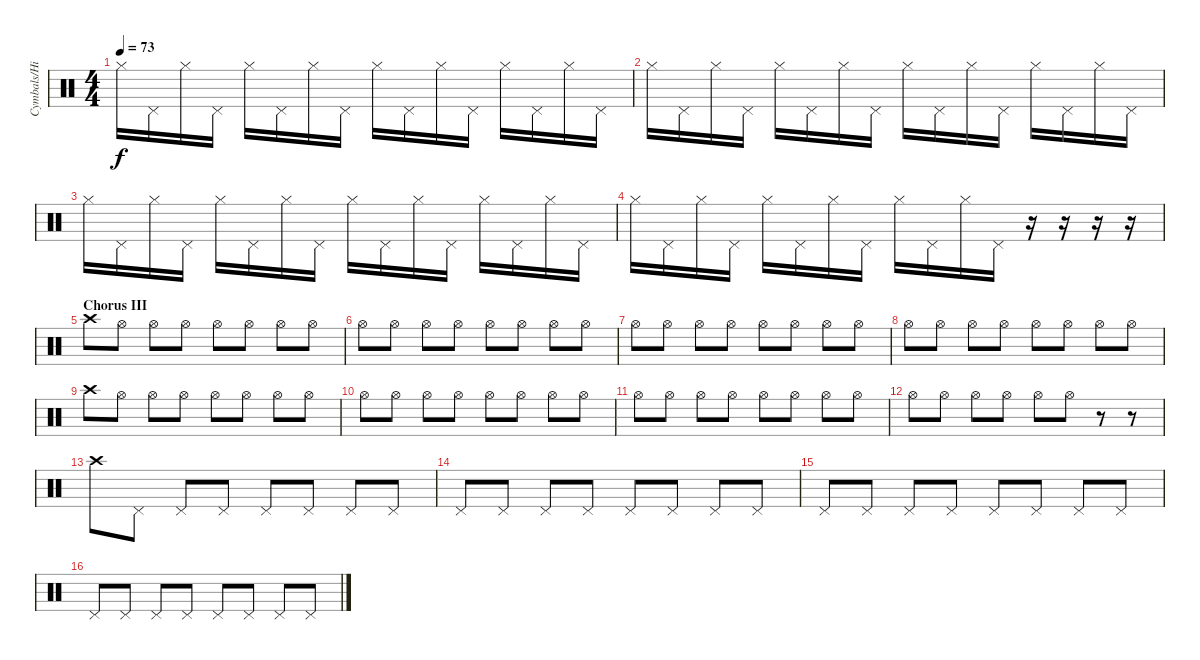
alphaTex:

\track ("Cymbals/Hi-hat" "Cymbals/Hi") {instrument percussion}
\staff {score}
\articulation defaults
\ts (4 4)
\tempo 73
\clef neutral
\ks c "Hi-Hat (closed)".16{dy f} "Pedal Hi-Hat (hit)".16 "Hi-Hat (closed)".16 "Pedal Hi-Hat (hit)".16 "Hi-Hat (closed)".16 "Pedal Hi-Hat (hit)".16 "Hi-Hat (closed)".16 "Pedal Hi-Hat (hit)".16 "Hi-Hat (closed)".16 "Pedal Hi-Hat (hit)".16 "Hi-Hat (closed)".16 "Pedal Hi-Hat (hit)".16 "Hi-Hat (closed)".16 "Pedal Hi-Hat (hit)".16 "Hi-Hat (closed)".16 "Pedal Hi-Hat (hit)".16
|
"Hi-Hat (closed)".16 "Pedal Hi-Hat (hit)".16 "Hi-Hat (closed)".16 "Pedal Hi-Hat (hit)".16 "Hi-Hat (closed)".16 "Pedal Hi-Hat (hit)".16 "Hi-Hat (closed)".16 "Pedal Hi-Hat (hit)".16 "Hi-Hat (closed)".16 "Pedal Hi-Hat (hit)".16 "Hi-Hat (closed)".16 "Pedal Hi-Hat (hit)".16 "Hi-Hat (closed)".16 "Pedal Hi-Hat (hit)".16 "Hi-Hat (closed)".16 "Pedal Hi-Hat (hit)".16 |
"Hi-Hat (closed)".16 "Pedal Hi-Hat (hit)".16 "Hi-Hat (closed)".16 "Pedal Hi-Hat (hit)".16 "Hi-Hat (closed)".16 "Pedal Hi-Hat (hit)".16 "Hi-Hat (closed)".16 "Pedal Hi-Hat (hit)".16 "Hi-Hat (closed)".16 "Pedal Hi-Hat (hit)".16 "Hi-Hat (closed)".16 "Pedal Hi-Hat (hit)".16 "Hi-Hat (closed)".16 "Pedal Hi-Hat (hit)".16 "Hi-Hat (closed)".16 "Pedal Hi-Hat (hit)".16 |
"Hi-Hat (closed)".16 "Pedal Hi-Hat (hit)".16 "Hi-Hat (closed)".16 "Pedal Hi-Hat (hit)".16 "Hi-Hat (closed)".16 "Pedal Hi-Hat (hit)".16 "Hi-Hat (closed)".16 "Pedal Hi-Hat (hit)".16 "Hi-Hat (closed)".16 "Pedal Hi-Hat (hit)".16 "Hi-Hat (closed)".16 "Pedal Hi-Hat (hit)".16 r.16 r.16 r.16 r.16 |
\section ("" "Chorus III")
"Crash high (hit)".8 "Hi-Hat (open)".8 "Hi-Hat (open)".8 "Hi-Hat (open)".8 "Hi-Hat (open)".8 "Hi-Hat (open)".8 "Hi-Hat (open)".8 "Hi-Hat (open)".8 |
"Hi-Hat (open)".8 "Hi-Hat (open)".8 "Hi-Hat (open)".8 "Hi-Hat (open)".8 "Hi-Hat (open)".8 "Hi-Hat (open)".8 "Hi-Hat (open)".8 "Hi-Hat (open)".8 |
"Hi-Hat (open)".8 "Hi-Hat (open)".8 "Hi-Hat (open)".8 "Hi-Hat (open)".8 "Hi-Hat (open)".8 "Hi-Hat (open)".8 "Hi-Hat (open)".8 "Hi-Hat (open)".8 |
"Hi-Hat (open)".8 "Hi-Hat (open)".8 "Hi-Hat (open)".8 "Hi-Hat (open)".8 "Hi-Hat (open)".8 "Hi-Hat (open)".8 "Hi-Hat (open)".8 "Hi-Hat (open)".8 |
"Crash high (hit)".8 "Hi-Hat (open)".8 "Hi-Hat (open)".8 "Hi-Hat (open)".8 "Hi-Hat (open)".8 "Hi-Hat (open)".8 "Hi-Hat (open)".8 "Hi-Hat (open)".8 |
"Hi-Hat (open)".8 "Hi-Hat (open)".8 "Hi-Hat (open)".8 "Hi-Hat (open)".8 "Hi-Hat (open)".8 "Hi-Hat (open)".8 "Hi-Hat (open)".8 "Hi-Hat (open)".8 |
"Hi-Hat (open)".8 "Hi-Hat (open)".8 "Hi-Hat (open)".8 "Hi-Hat (open)".8 "Hi-Hat (open)".8 "Hi-Hat (open)".8 "Hi-Hat (open)".8 "Hi-Hat (open)".8 |
"Hi-Hat (open)".8 "Hi-Hat (open)".8 "Hi-Hat (open)".8 "Hi-Hat (open)".8 "Hi-Hat (open)".8 "Hi-Hat (open)".8 r.8 r.8 |
"Crash high (hit)".8 "Pedal Hi-Hat (hit)".8 "Pedal Hi-Hat (hit)".8 "Pedal Hi-Hat (hit)".8 "Pedal Hi-Hat (hit)".8 "Pedal Hi-Hat (hit)".8 "Pedal Hi-Hat (hit)".8 "Pedal Hi-Hat (hit)".8 |
"Pedal Hi-Hat (hit)".8 "Pedal Hi-Hat (hit)".8 "Pedal Hi-Hat (hit)".8 "Pedal Hi-Hat (hit)".8 "Pedal Hi-Hat (hit)".8 "Pedal Hi-Hat (hit)".8 "Pedal Hi-Hat (hit)".8 "Pedal Hi-Hat (hit)".8 |
"Pedal Hi-Hat (hit)".8 "Pedal Hi-Hat (hit)".8 "Pedal Hi-Hat (hit)".8 "Pedal Hi-Hat (hit)".8 "Pedal Hi-Hat (hit)".8 "Pedal Hi-Hat (hit)".8 "Pedal Hi-Hat (hit)".8 "Pedal Hi-Hat (hit)".8 |
"Pedal Hi-Hat (hit)".8 "Pedal Hi-Hat (hit)".8 "Pedal Hi-Hat (hit)".8 "Pedal Hi-Hat (hit)".8 "Pedal Hi-Hat (hit)".8 "Pedal Hi-Hat (hit)".8 "Pedal Hi-Hat (hit)".8 "Pedal Hi-Hat (hit)".8
